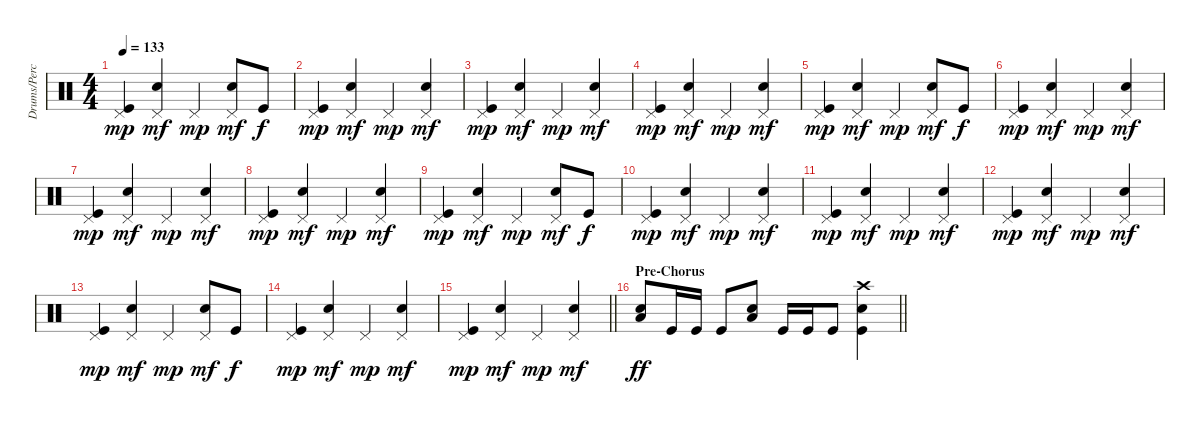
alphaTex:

\track ("Drums/Percussion" "Drums/Perc") {instrument percussion}
\staff {score}
\articulation defaults
\ts (4 4)
\tempo 133
\clef neutral
\ks c
("Pedal Hi-Hat (hit)" "Kick (hit)").4{dy mp} ("Pedal Hi-Hat (hit)" "Snare (hit) 2").4{dy mf} "Pedal Hi-Hat (hit)".4{dy mp} ("Pedal Hi-Hat (hit)" "Snare (hit) 2").8{dy mf} "Kick (hit)".8{dy f} |
("Pedal Hi-Hat (hit)" "Kick (hit)").4{dy mp} ("Pedal Hi-Hat (hit)" "Snare (hit) 2").4{dy mf} "Pedal Hi-Hat (hit)".4{dy mp} ("Pedal Hi-Hat (hit)" "Snare (hit) 2").4{dy mf} |
("Pedal Hi-Hat (hit)" "Kick (hit)").4{dy mp} ("Pedal Hi-Hat (hit)" "Snare (hit) 2").4{dy mf} "Pedal Hi-Hat (hit)".4{dy mp} ("Pedal Hi-Hat (hit)" "Snare (hit) 2").4{dy mf} |
("Pedal Hi-Hat (hit)" "Kick (hit)").4{dy mp} ("Pedal Hi-Hat (hit)" "Snare (hit) 2").4{dy mf} "Pedal Hi-Hat (hit)".4{dy mp} ("Pedal Hi-Hat (hit)" "Snare (hit) 2").4{dy mf} |
("Pedal Hi-Hat (hit)" "Kick (hit)").4{dy mp} ("Pedal Hi-Hat (hit)" "Snare (hit) 2").4{dy mf} "Pedal Hi-Hat (hit)".4{dy mp} ("Pedal Hi-Hat (hit)" "Snare (hit) 2").8{dy mf} "Kick (hit)".8{dy f} |
("Pedal Hi-Hat (hit)" "Kick (hit)").4{dy mp} ("Pedal Hi-Hat (hit)" "Snare (hit) 2").4{dy mf} "Pedal Hi-Hat (hit)".4{dy mp} ("Pedal Hi-Hat (hit)" "Snare (hit) 2").4{dy mf} |
("Pedal Hi-Hat (hit)" "Kick (hit)").4{dy mp} ("Pedal Hi-Hat (hit)" "Snare (hit) 2").4{dy mf} "Pedal Hi-Hat (hit)".4{dy mp} ("Pedal Hi-Hat (hit)" "Snare (hit) 2").4{dy mf} |
("Pedal Hi-Hat (hit)" "Kick (hit)").4{dy mp} ("Pedal Hi-Hat (hit)" "Snare (hit) 2").4{dy mf} "Pedal Hi-Hat (hit)".4{dy mp} ("Pedal Hi-Hat (hit)" "Snare (hit) 2").4{dy mf} |
("Pedal Hi-Hat (hit)" "Kick (hit)").4{dy mp} ("Pedal Hi-Hat (hit)" "Snare (hit) 2").4{dy mf} "Pedal Hi-Hat (hit)".4{dy mp} ("Pedal Hi-Hat (hit)" "Snare (hit) 2").8{dy mf} "Kick (hit)".8{dy f} |
("Pedal Hi-Hat (hit)" "Kick (hit)").4{dy mp} ("Pedal Hi-Hat (hit)" "Snare (hit) 2").4{dy mf} "Pedal Hi-Hat (hit)".4{dy mp} ("Pedal Hi-Hat (hit)" "Snare (hit) 2").4{dy mf} |
("Pedal Hi-Hat (hit)" "Kick (hit)").4{dy mp} ("Pedal Hi-Hat (hit)" "Snare (hit) 2").4{dy mf} "Pedal Hi-Hat (hit)".4{dy mp} ("Pedal Hi-Hat (hit)" "Snare (hit) 2").4{dy mf} |
("Pedal Hi-Hat (hit)" "Kick (hit)").4{dy mp} ("Pedal Hi-Hat (hit)" "Snare (hit) 2").4{dy mf} "Pedal Hi-Hat (hit)".4{dy mp} ("Pedal Hi-Hat (hit)" "Snare (hit) 2").4{dy mf} |
("Pedal Hi-Hat (hit)" "Kick (hit)").4{dy mp} ("Pedal Hi-Hat (hit)" "Snare (hit) 2").4{dy mf} "Pedal Hi-Hat (hit)".4{dy mp} ("Pedal Hi-Hat (hit)" "Snare (hit) 2").8{dy mf} "Kick (hit)".8{dy f} |
("Pedal Hi-Hat (hit)" "Kick (hit)").4{dy mp} ("Pedal Hi-Hat (hit)" "Snare (hit) 2").4{dy mf} "Pedal Hi-Hat (hit)".4{dy mp} ("Pedal Hi-Hat (hit)" "Snare (hit) 2").4{dy mf} |
\barLineRight lightlight
("Pedal Hi-Hat (hit)" "Kick (hit)").4{dy mp} ("Pedal Hi-Hat (hit)" "Snare (hit) 2").4{dy mf} "Pedal Hi-Hat (hit)".4{dy mp} ("Pedal Hi-Hat (hit)" "Snare (hit) 2").4{dy mf} |
\section ("" "Pre-Chorus")
\barLineRight lightlight
("Low Tom (hit)" "Snare (hit) 2").8{dy ff} "Kick (hit)".16 "Kick (hit)".16 "Kick (hit)".8 ("Low Tom (hit)" "Snare (hit) 2").8 "Kick (hit)".16 "Kick (hit)".16 "Kick (hit)".8 ("Crash high (hit)" "Kick (hit)" "Snare (hit) 2").4
